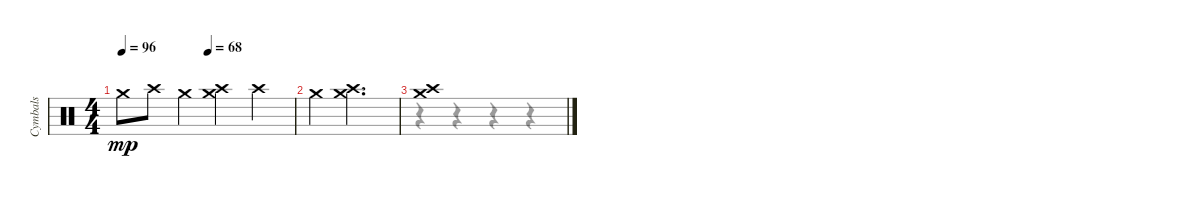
\track ("Cymbals" "Cymbals") {instrument percussion}
\staff {score}
\articulation defaults
\voice
\ts (4 4)
\tempo 96
\tempo (68 0.5)
\clef neutral
\ks c "Crash medium (hit)".8{dy mp} "Crash high (hit)".8 "Crash medium (hit)".4
("Crash medium (hit)" "Crash high (hit)").4 "Crash high (hit)".4 |
"Crash medium (hit)".4 ("Crash medium (hit)" "Crash high (hit)").2{d} |
("Crash medium (hit)" "Crash high (hit)").1
\voice
\clef neutral
\ottava regular
\simile none
\ks c
|
|
r.4 r.4 r.4 r.4
